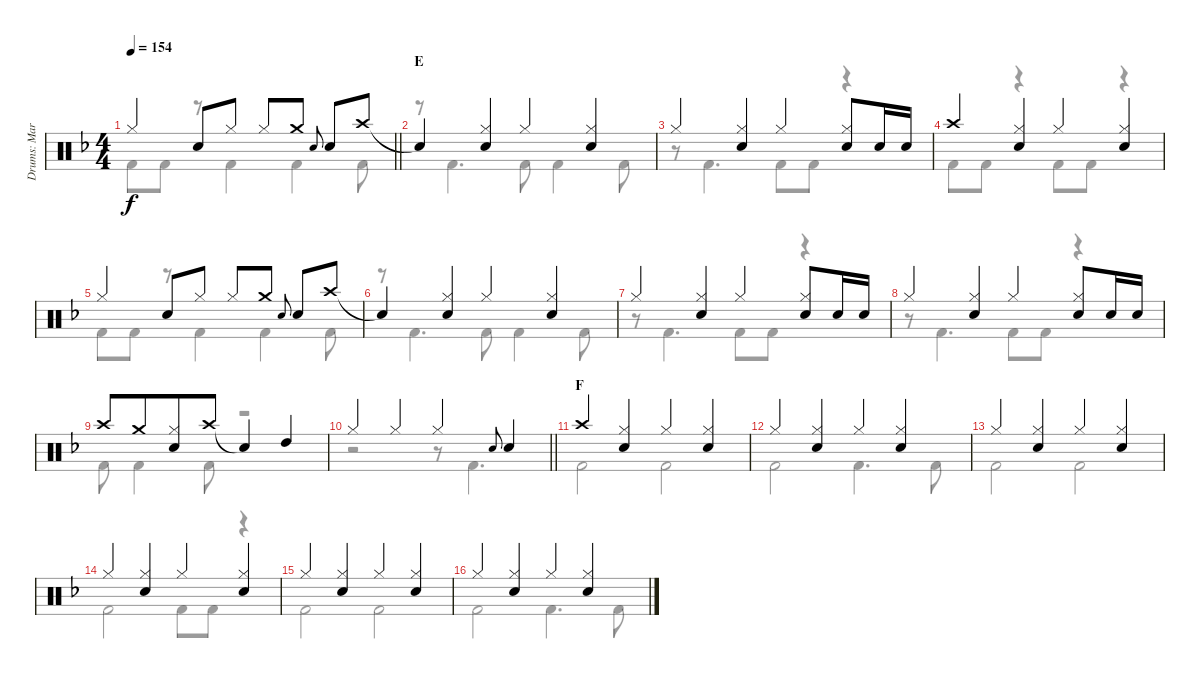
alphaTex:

\track ("Drums: Mark" "Drums: Mar") {instrument percussion}
\staff {score}
\articulation defaults
\voice
\ts (4 4)
\tempo 154
\clef neutral
\barLineRight lightlight
\ks f "Hi-Hat (closed)".4{dy f} "Snare (hit) 2".8{beam merge} "Hi-Hat (closed)".8 "Hi-Hat (closed)".8 "Crash medium (hit)".8 "Electric Snare (hit)".8{gr onbeat beam merge} "Snare (hit) 2".8 "Crash high (hit)".8
|
\section ("" "E")
"Snare (hit)"{t}.4 ("Hi-Hat (closed)" "Snare (hit) 2").4 "Hi-Hat (closed)".4 ("Hi-Hat (closed)" "Snare (hit) 2").4 |
"Hi-Hat (closed)".4 ("Hi-Hat (closed)" "Snare (hit) 2").4 "Hi-Hat (closed)".4 ("Hi-Hat (closed)" "Snare (hit) 2").8 "Snare (hit) 2".16 "Snare (hit) 2".16 |
"Crash high (hit)".4 ("Hi-Hat (closed)" "Snare (hit) 2").4 "Hi-Hat (closed)".4 ("Hi-Hat (closed)" "Snare (hit) 2").4 |
"Hi-Hat (closed)".4 "Snare (hit) 2".8{beam merge} "Hi-Hat (closed)".8 "Hi-Hat (closed)".8 "Crash medium (hit)".8 "Electric Snare (hit)".8{gr onbeat beam merge} "Snare (hit) 2".8 "Crash high (hit)".8 |
"Snare (hit)"{t}.4 ("Hi-Hat (closed)" "Snare (hit) 2").4 "Hi-Hat (closed)".4 ("Hi-Hat (closed)" "Snare (hit) 2").4 |
"Hi-Hat (closed)".4 ("Hi-Hat (closed)" "Snare (hit) 2").4 "Hi-Hat (closed)".4 ("Hi-Hat (closed)" "Snare (hit) 2").8 "Snare (hit) 2".16 "Snare (hit) 2".16 |
"Hi-Hat (closed)".4 ("Hi-Hat (closed)" "Snare (hit) 2").4 "Hi-Hat (closed)".4 ("Hi-Hat (closed)" "Snare (hit) 2").8 "Snare (hit) 2".16 "Snare (hit) 2".16 |
"Crash high (hit)".8 "Crash medium (hit)".8{beam merge} ("Hi-Hat (closed)" "Snare (hit) 2").8 "Crash high (hit)".8 "Snare (hit)"{t}.4 "High Tom (hit)".4 |
\barLineRight lightlight "Hi-Hat (closed)".4 "Hi-Hat (closed)".4 "Hi-Hat (closed)".4 "Electric Snare (hit)".8{gr onbeat} "Snare (hit) 2".4
|
\section ("" "F")
"Crash high (hit)".4 ("Hi-Hat (closed)" "Snare (hit) 2").4 "Hi-Hat (closed)".4 ("Hi-Hat (closed)" "Snare (hit) 2").4 |
"Hi-Hat (closed)".4 ("Hi-Hat (closed)" "Snare (hit) 2").4 "Hi-Hat (closed)".4 ("Hi-Hat (closed)" "Snare (hit) 2").4 |
"Hi-Hat (closed)".4 ("Hi-Hat (closed)" "Snare (hit) 2").4 "Hi-Hat (closed)".4 ("Hi-Hat (closed)" "Snare (hit) 2").4 |
"Hi-Hat (closed)".4 ("Hi-Hat (closed)" "Snare (hit) 2").4 "Hi-Hat (closed)".4 ("Hi-Hat (closed)" "Snare (hit) 2").4 |
"Hi-Hat (closed)".4 ("Hi-Hat (closed)" "Snare (hit) 2").4 "Hi-Hat (closed)".4 ("Hi-Hat (closed)" "Snare (hit) 2").4 |
"Hi-Hat (closed)".4 ("Hi-Hat (closed)" "Snare (hit) 2").4 "Hi-Hat (closed)".4 ("Hi-Hat (closed)" "Snare (hit) 2").4
\voice
\clef neutral
\ottava regular
\simile none
\barLineRight lightlight
\ks f "Kick (hit) 2".8{dy f} "Kick (hit) 2".8
r.8 "Kick (hit) 2".4 "Kick (hit) 2".4 "Kick (hit) 2".8 |
r.8 "Kick (hit) 2".4{d} "Kick (hit) 2".8 "Kick (hit) 2".4 "Kick (hit) 2".8 |
r.8 "Kick (hit) 2".4{d} "Kick (hit) 2".8 "Kick (hit) 2".8 r.4 |
"Kick (hit) 2".8 "Kick (hit) 2".8 r.4 "Kick (hit) 2".8 "Kick (hit) 2".8 r.4 |
"Kick (hit) 2".8 "Kick (hit) 2".8 r.8 "Kick (hit) 2".4 "Kick (hit) 2".4 "Kick (hit) 2".8 |
r.8 "Kick (hit) 2".4{d} "Kick (hit) 2".8 "Kick (hit) 2".4 "Kick (hit) 2".8 |
r.8 "Kick (hit) 2".4{d} "Kick (hit) 2".8 "Kick (hit) 2".8 r.4 |
r.8 "Kick (hit) 2".4{d} "Kick (hit) 2".8 "Kick (hit) 2".8 r.4 |
"Kick (hit) 2".8 "Kick (hit) 2".4 "Kick (hit) 2".8 r.2 |
\barLineRight lightlight
r.2 r.8 "Kick (hit) 2".4{d} |
"Kick (hit) 2".2 "Kick (hit) 2".2 |
"Kick (hit) 2".2 "Kick (hit) 2".4{d} "Kick (hit) 2".8 |
"Kick (hit) 2".2 "Kick (hit) 2".2 |
"Kick (hit) 2".2 "Kick (hit) 2".8 "Kick (hit) 2".8 r.4 |
"Kick (hit) 2".2 "Kick (hit) 2".2 |
"Kick (hit) 2".2 "Kick (hit) 2".4{d} "Kick (hit) 2".8
